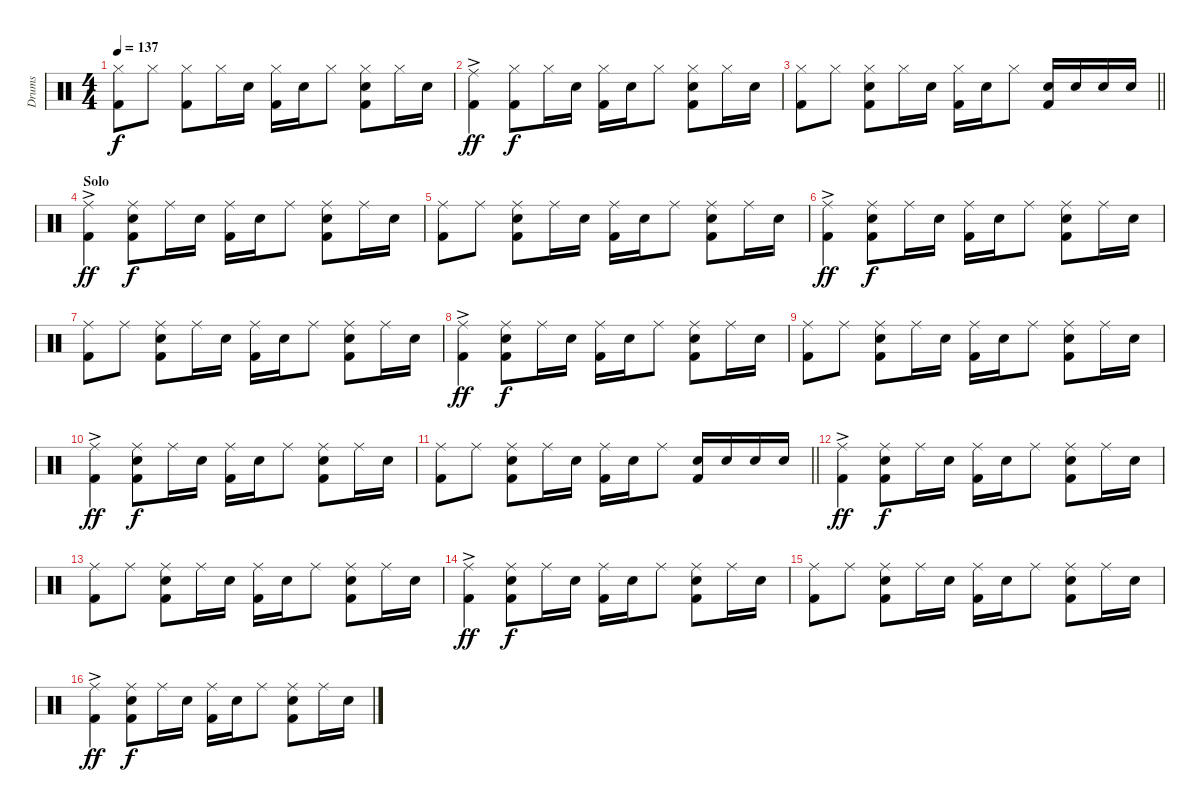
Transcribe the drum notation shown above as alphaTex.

\track ("Drums" "Drums") {instrument percussion}
\staff {score}
\articulation defaults
\ts (4 4)
\tempo 137
\clef neutral
\ks c
("Hi-Hat (closed)" "Kick (hit) 2").8{dy f} "Hi-Hat (closed)".8 ("Hi-Hat (closed)" "Kick (hit) 2").8 "Hi-Hat (closed)".16 "Electric Snare (hit)".16 ("Hi-Hat (closed)" "Kick (hit) 2").16 "Electric Snare (hit)".16 "Hi-Hat (closed)".8 ("Hi-Hat (closed)" "Electric Snare (hit)" "Kick (hit) 2").8 "Hi-Hat (closed)".16 "Electric Snare (hit)".16 |
("Ride (middle)"{ac} "Kick (hit) 2").4{dy ff} ("Hi-Hat (closed)" "Kick (hit) 2").8{dy f} "Hi-Hat (closed)".16 "Electric Snare (hit)".16 ("Hi-Hat (closed)" "Kick (hit) 2").16 "Electric Snare (hit)".16 "Hi-Hat (closed)".8 ("Hi-Hat (closed)" "Electric Snare (hit)" "Kick (hit) 2").8 "Hi-Hat (closed)".16 "Electric Snare (hit)".16 |
\barLineRight lightlight
("Hi-Hat (closed)" "Kick (hit) 2").8 "Hi-Hat (closed)".8 ("Hi-Hat (closed)" "Electric Snare (hit)" "Kick (hit) 2").8 "Hi-Hat (closed)".16 "Electric Snare (hit)".16 ("Hi-Hat (closed)" "Kick (hit) 2").16 "Electric Snare (hit)".16 "Hi-Hat (closed)".8 ("Electric Snare (hit)" "Kick (hit) 2").16 "Electric Snare (hit)".16 "Electric Snare (hit)".16 "Electric Snare (hit)".16 |
\section ("" "Solo")
("Ride (middle)"{ac} "Kick (hit) 2").4{dy ff} ("Ride (middle)" "Electric Snare (hit)" "Kick (hit) 2").8{dy f} "Ride (middle)".16 "Electric Snare (hit)".16 ("Ride (middle)" "Kick (hit) 2").16 "Electric Snare (hit)".16 "Ride (middle)".8 ("Ride (middle)" "Electric Snare (hit)" "Kick (hit) 2").8 "Ride (middle)".16 "Electric Snare (hit)".16 |
("Ride (middle)" "Kick (hit) 2").8 "Ride (middle)".8 ("Ride (middle)" "Electric Snare (hit)" "Kick (hit) 2").8 "Ride (middle)".16 "Electric Snare (hit)".16 ("Ride (middle)" "Kick (hit) 2").16 "Electric Snare (hit)".16 "Ride (middle)".8 ("Ride (middle)" "Electric Snare (hit)" "Kick (hit) 2").8 "Ride (middle)".16 "Electric Snare (hit)".16 |
("Ride (middle)"{ac} "Kick (hit) 2").4{dy ff} ("Ride (middle)" "Electric Snare (hit)" "Kick (hit) 2").8{dy f} "Ride (middle)".16 "Electric Snare (hit)".16 ("Ride (middle)" "Kick (hit) 2").16 "Electric Snare (hit)".16 "Ride (middle)".8 ("Ride (middle)" "Electric Snare (hit)" "Kick (hit) 2").8 "Ride (middle)".16 "Electric Snare (hit)".16 |
("Ride (middle)" "Kick (hit) 2").8 "Ride (middle)".8 ("Ride (middle)" "Electric Snare (hit)" "Kick (hit) 2").8 "Ride (middle)".16 "Electric Snare (hit)".16 ("Ride (middle)" "Kick (hit) 2").16 "Electric Snare (hit)".16 "Ride (middle)".8 ("Ride (middle)" "Electric Snare (hit)" "Kick (hit) 2").8 "Ride (middle)".16 "Electric Snare (hit)".16 |
("Ride (middle)"{ac} "Kick (hit) 2").4{dy ff} ("Ride (middle)" "Electric Snare (hit)" "Kick (hit) 2").8{dy f} "Ride (middle)".16 "Electric Snare (hit)".16 ("Ride (middle)" "Kick (hit) 2").16 "Electric Snare (hit)".16 "Ride (middle)".8 ("Ride (middle)" "Electric Snare (hit)" "Kick (hit) 2").8 "Ride (middle)".16 "Electric Snare (hit)".16 |
("Ride (middle)" "Kick (hit) 2").8 "Ride (middle)".8 ("Ride (middle)" "Electric Snare (hit)" "Kick (hit) 2").8 "Ride (middle)".16 "Electric Snare (hit)".16 ("Ride (middle)" "Kick (hit) 2").16 "Electric Snare (hit)".16 "Ride (middle)".8 ("Ride (middle)" "Electric Snare (hit)" "Kick (hit) 2").8 "Ride (middle)".16 "Electric Snare (hit)".16 |
("Ride (middle)"{ac} "Kick (hit) 2").4{dy ff} ("Ride (middle)" "Electric Snare (hit)" "Kick (hit) 2").8{dy f} "Ride (middle)".16 "Electric Snare (hit)".16 ("Ride (middle)" "Kick (hit) 2").16 "Electric Snare (hit)".16 "Ride (middle)".8 ("Ride (middle)" "Electric Snare (hit)" "Kick (hit) 2").8 "Ride (middle)".16 "Electric Snare (hit)".16 |
\barLineRight lightlight
("Ride (middle)" "Kick (hit) 2").8 "Ride (middle)".8 ("Ride (middle)" "Electric Snare (hit)" "Kick (hit) 2").8 "Ride (middle)".16 "Electric Snare (hit)".16 ("Ride (middle)" "Kick (hit) 2").16 "Electric Snare (hit)".16 "Ride (middle)".8 ("Electric Snare (hit)" "Kick (hit) 2").16 "Electric Snare (hit)".16 "Electric Snare (hit)".16 "Electric Snare (hit)".16 |
\section ("" "")
("Ride (middle)"{ac} "Kick (hit) 2").4{dy ff} ("Ride (middle)" "Electric Snare (hit)" "Kick (hit) 2").8{dy f} "Ride (middle)".16 "Electric Snare (hit)".16 ("Ride (middle)" "Kick (hit) 2").16 "Electric Snare (hit)".16 "Ride (middle)".8 ("Ride (middle)" "Electric Snare (hit)" "Kick (hit) 2").8 "Ride (middle)".16 "Electric Snare (hit)".16 |
("Ride (middle)" "Kick (hit) 2").8 "Ride (middle)".8 ("Ride (middle)" "Electric Snare (hit)" "Kick (hit) 2").8 "Ride (middle)".16 "Electric Snare (hit)".16 ("Ride (middle)" "Kick (hit) 2").16 "Electric Snare (hit)".16 "Ride (middle)".8 ("Ride (middle)" "Electric Snare (hit)" "Kick (hit) 2").8 "Ride (middle)".16 "Electric Snare (hit)".16 |
("Ride (middle)"{ac} "Kick (hit) 2").4{dy ff} ("Ride (middle)" "Electric Snare (hit)" "Kick (hit) 2").8{dy f} "Ride (middle)".16 "Electric Snare (hit)".16 ("Ride (middle)" "Kick (hit) 2").16 "Electric Snare (hit)".16 "Ride (middle)".8 ("Ride (middle)" "Electric Snare (hit)" "Kick (hit) 2").8 "Ride (middle)".16 "Electric Snare (hit)".16 |
("Ride (middle)" "Kick (hit) 2").8 "Ride (middle)".8 ("Ride (middle)" "Electric Snare (hit)" "Kick (hit) 2").8 "Ride (middle)".16 "Electric Snare (hit)".16 ("Ride (middle)" "Kick (hit) 2").16 "Electric Snare (hit)".16 "Ride (middle)".8 ("Ride (middle)" "Electric Snare (hit)" "Kick (hit) 2").8 "Ride (middle)".16 "Electric Snare (hit)".16 |
("Ride (middle)"{ac} "Kick (hit) 2").4{dy ff} ("Ride (middle)" "Electric Snare (hit)" "Kick (hit) 2").8{dy f} "Ride (middle)".16 "Electric Snare (hit)".16 ("Ride (middle)" "Kick (hit) 2").16 "Electric Snare (hit)".16 "Ride (middle)".8 ("Ride (middle)" "Electric Snare (hit)" "Kick (hit) 2").8 "Ride (middle)".16 "Electric Snare (hit)".16
